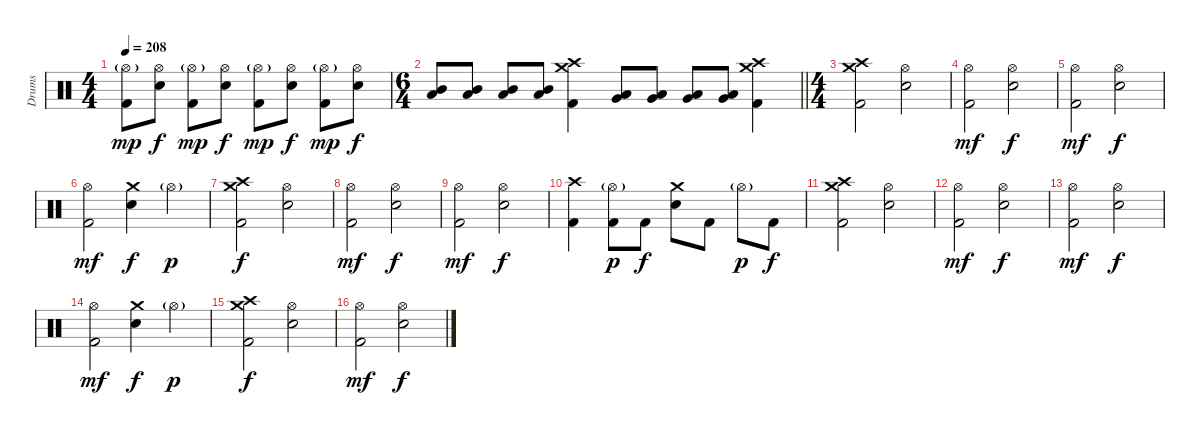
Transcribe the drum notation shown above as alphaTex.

\track ("Drums" "Drums") {instrument percussion}
\staff {score}
\articulation defaults
\ts (4 4)
\tempo 208
\clef neutral
\ks c
("Hi-Hat (open)"{g} "Kick (hit) 2").8{dy mp} ("Hi-Hat (open)" "Electric Snare (hit)").8{dy f} ("Hi-Hat (open)"{g} "Kick (hit) 2").8{dy mp} ("Hi-Hat (open)" "Electric Snare (hit)").8{dy f} ("Hi-Hat (open)"{g} "Kick (hit) 2").8{dy mp} ("Hi-Hat (open)" "Electric Snare (hit)").8{dy f} ("Hi-Hat (open)"{g} "Kick (hit) 2").8{dy mp} ("Hi-Hat (open)" "Electric Snare (hit)").8{dy f} |
\ts (6 4)
\barLineRight lightlight
("Mid Tom (hit)" "Low Tom (hit)").8 ("Mid Tom (hit)" "Low Tom (hit)").8 ("Mid Tom (hit)" "Low Tom (hit)").8 ("Mid Tom (hit)" "Low Tom (hit)").8 ("Crash high (hit)" "Crash medium (hit)" "Kick (hit) 2").4 ("Low Tom (hit)" "Very Low Tom (hit)").8 ("Low Tom (hit)" "Very Low Tom (hit)").8 ("Low Tom (hit)" "Very Low Tom (hit)").8 ("Low Tom (hit)" "Very Low Tom (hit)").8 ("Crash high (hit)" "Crash medium (hit)" "Kick (hit) 2").4 |
\ts (4 4)
("Crash high (hit)" "Crash medium (hit)" "Kick (hit) 2").2 ("Hi-Hat (open)" "Electric Snare (hit)").2 |
("Hi-Hat (open)" "Kick (hit) 2").2{dy mf} ("Hi-Hat (open)" "Electric Snare (hit)").2{dy f} |
("Hi-Hat (open)" "Kick (hit) 2").2{dy mf} ("Hi-Hat (open)" "Electric Snare (hit)").2{dy f} |
("Hi-Hat (open)" "Kick (hit) 2").2{dy mf} ("Crash medium (hit)" "Electric Snare (hit)").4{dy f} "Hi-Hat (open)"{g}.4{dy p} |
("Crash high (hit)" "Crash medium (hit)" "Kick (hit) 2").2{dy f} ("Hi-Hat (open)" "Electric Snare (hit)").2 |
("Hi-Hat (open)" "Kick (hit) 2").2{dy mf} ("Hi-Hat (open)" "Electric Snare (hit)").2{dy f} |
("Hi-Hat (open)" "Kick (hit) 2").2{dy mf} ("Hi-Hat (open)" "Electric Snare (hit)").2{dy f} |
("Crash high (hit)" "Kick (hit) 2").4 ("Hi-Hat (open)"{g} "Kick (hit) 2").8{dy p} "Kick (hit) 2".8{dy f} ("Crash medium (hit)" "Electric Snare (hit)").8 "Kick (hit) 2".8 "Hi-Hat (open)"{g}.8{dy p} "Kick (hit) 2".8{dy f} |
("Crash high (hit)" "Crash medium (hit)" "Kick (hit) 2").2 ("Hi-Hat (open)" "Electric Snare (hit)").2 |
("Hi-Hat (open)" "Kick (hit) 2").2{dy mf} ("Hi-Hat (open)" "Electric Snare (hit)").2{dy f} |
("Hi-Hat (open)" "Kick (hit) 2").2{dy mf} ("Hi-Hat (open)" "Electric Snare (hit)").2{dy f} |
("Hi-Hat (open)" "Kick (hit) 2").2{dy mf} ("Crash medium (hit)" "Electric Snare (hit)").4{dy f} "Hi-Hat (open)"{g}.4{dy p} |
("Crash high (hit)" "Crash medium (hit)" "Kick (hit) 2").2{dy f} ("Hi-Hat (open)" "Electric Snare (hit)").2 |
("Hi-Hat (open)" "Kick (hit) 2").2{dy mf} ("Hi-Hat (open)" "Electric Snare (hit)").2{dy f}
